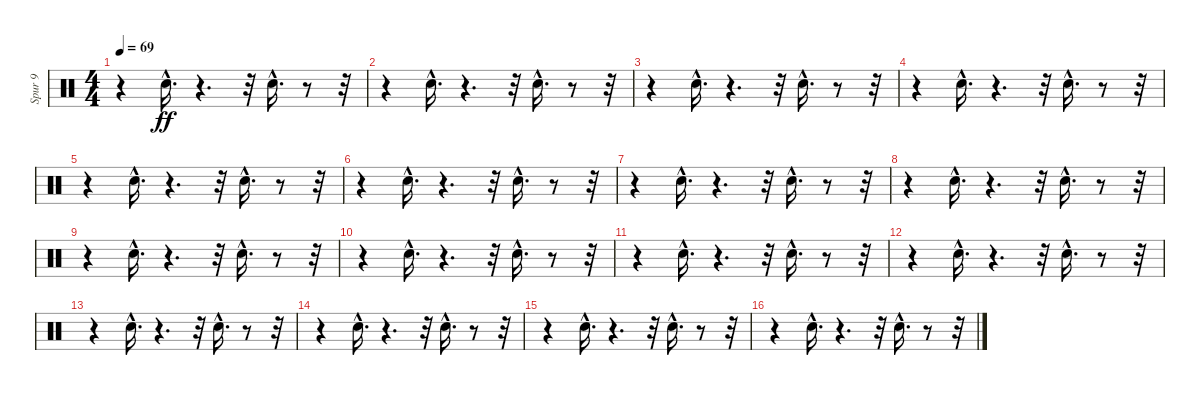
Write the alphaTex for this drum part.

\track ("Spur 9" "Spur 9") {instrument percussion}
\staff {score}
\articulation defaults
\ts (4 4)
\tempo 69
\clef neutral
\ks c
r.4{dy ff} "Electric Snare (hit)"{hac}.16{d} r.4{d} r.32 "Electric Snare (hit)"{hac}.16{d} r.8 r.32 |
r.4 "Electric Snare (hit)"{hac}.16{d} r.4{d} r.32 "Electric Snare (hit)"{hac}.16{d} r.8 r.32 |
r.4 "Electric Snare (hit)"{hac}.16{d} r.4{d} r.32 "Electric Snare (hit)"{hac}.16{d} r.8 r.32 |
r.4 "Electric Snare (hit)"{hac}.16{d} r.4{d} r.32 "Electric Snare (hit)"{hac}.16{d} r.8 r.32 |
r.4 "Electric Snare (hit)"{hac}.16{d} r.4{d} r.32 "Electric Snare (hit)"{hac}.16{d} r.8 r.32 |
r.4 "Electric Snare (hit)"{hac}.16{d} r.4{d} r.32 "Electric Snare (hit)"{hac}.16{d} r.8 r.32 |
r.4 "Electric Snare (hit)"{hac}.16{d} r.4{d} r.32 "Electric Snare (hit)"{hac}.16{d} r.8 r.32 |
r.4 "Electric Snare (hit)"{hac}.16{d} r.4{d} r.32 "Electric Snare (hit)"{hac}.16{d} r.8 r.32 |
r.4 "Electric Snare (hit)"{hac}.16{d} r.4{d} r.32 "Electric Snare (hit)"{hac}.16{d} r.8 r.32 |
r.4 "Electric Snare (hit)"{hac}.16{d} r.4{d} r.32 "Electric Snare (hit)"{hac}.16{d} r.8 r.32 |
r.4 "Electric Snare (hit)"{hac}.16{d} r.4{d} r.32 "Electric Snare (hit)"{hac}.16{d} r.8 r.32 |
r.4 "Electric Snare (hit)"{hac}.16{d} r.4{d} r.32 "Electric Snare (hit)"{hac}.16{d} r.8 r.32 |
r.4 "Electric Snare (hit)"{hac}.16{d} r.4{d} r.32 "Electric Snare (hit)"{hac}.16{d} r.8 r.32 |
r.4 "Electric Snare (hit)"{hac}.16{d} r.4{d} r.32 "Electric Snare (hit)"{hac}.16{d} r.8 r.32 |
r.4 "Electric Snare (hit)"{hac}.16{d} r.4{d} r.32 "Electric Snare (hit)"{hac}.16{d} r.8 r.32 |
r.4 "Electric Snare (hit)"{hac}.16{d} r.4{d} r.32 "Electric Snare (hit)"{hac}.16{d} r.8 r.32
